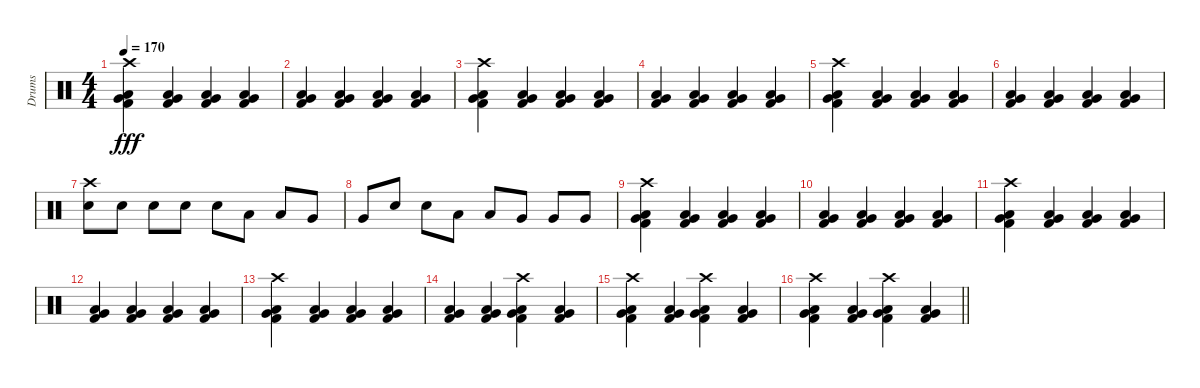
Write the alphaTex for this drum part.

\track ("Drums" "Drums") {instrument percussion}
\staff {score}
\articulation defaults
\ts (4 4)
\tempo 170
\clef neutral
\ks c
("Crash high (hit)" "Low Tom (hit)" "Very Low Tom (hit)" "Kick (hit) 2").4{dy fff} ("Low Tom (hit)" "Very Low Tom (hit)" "Kick (hit) 2").4 ("Low Tom (hit)" "Very Low Tom (hit)" "Kick (hit) 2").4 ("Low Tom (hit)" "Very Low Tom (hit)" "Kick (hit) 2").4 |
("Low Tom (hit)" "Very Low Tom (hit)" "Kick (hit) 2").4 ("Low Tom (hit)" "Very Low Tom (hit)" "Kick (hit) 2").4 ("Low Tom (hit)" "Very Low Tom (hit)" "Kick (hit) 2").4 ("Low Tom (hit)" "Very Low Tom (hit)" "Kick (hit) 2").4 |
("Crash high (hit)" "Low Tom (hit)" "Very Low Tom (hit)" "Kick (hit) 2").4 ("Low Tom (hit)" "Very Low Tom (hit)" "Kick (hit) 2").4 ("Low Tom (hit)" "Very Low Tom (hit)" "Kick (hit) 2").4 ("Low Tom (hit)" "Very Low Tom (hit)" "Kick (hit) 2").4 |
("Low Tom (hit)" "Very Low Tom (hit)" "Kick (hit) 2").4 ("Low Tom (hit)" "Very Low Tom (hit)" "Kick (hit) 2").4 ("Low Tom (hit)" "Very Low Tom (hit)" "Kick (hit) 2").4 ("Low Tom (hit)" "Very Low Tom (hit)" "Kick (hit) 2").4 |
("Crash high (hit)" "Low Tom (hit)" "Very Low Tom (hit)" "Kick (hit) 2").4 ("Low Tom (hit)" "Very Low Tom (hit)" "Kick (hit) 2").4 ("Low Tom (hit)" "Very Low Tom (hit)" "Kick (hit) 2").4 ("Low Tom (hit)" "Very Low Tom (hit)" "Kick (hit) 2").4 |
("Low Tom (hit)" "Very Low Tom (hit)" "Kick (hit) 2").4 ("Low Tom (hit)" "Very Low Tom (hit)" "Kick (hit) 2").4 ("Low Tom (hit)" "Very Low Tom (hit)" "Kick (hit) 2").4 ("Low Tom (hit)" "Very Low Tom (hit)" "Kick (hit) 2").4 |
("Crash high (hit)" "Electric Snare (hit)").8 "Electric Snare (hit)".8 "Electric Snare (hit)".8 "Electric Snare (hit)".8 "Electric Snare (hit)".8 "Low Tom (hit)".8 "Low Tom (hit)".8 "Very Low Tom (hit)".8 |
"Very Low Tom (hit)".8 "Electric Snare (hit)".8 "Electric Snare (hit)".8 "Low Tom (hit)".8 "Low Tom (hit)".8 "Very Low Tom (hit)".8 "Very Low Tom (hit)".8 "Very Low Tom (hit)".8 |
("Crash high (hit)" "Low Tom (hit)" "Very Low Tom (hit)" "Kick (hit) 2").4 ("Low Tom (hit)" "Very Low Tom (hit)" "Kick (hit) 2").4 ("Low Tom (hit)" "Very Low Tom (hit)" "Kick (hit) 2").4 ("Low Tom (hit)" "Very Low Tom (hit)" "Kick (hit) 2").4 |
("Low Tom (hit)" "Very Low Tom (hit)" "Kick (hit) 2").4 ("Low Tom (hit)" "Very Low Tom (hit)" "Kick (hit) 2").4 ("Low Tom (hit)" "Very Low Tom (hit)" "Kick (hit) 2").4 ("Low Tom (hit)" "Very Low Tom (hit)" "Kick (hit) 2").4 |
("Crash high (hit)" "Low Tom (hit)" "Very Low Tom (hit)" "Kick (hit) 2").4 ("Low Tom (hit)" "Very Low Tom (hit)" "Kick (hit) 2").4 ("Low Tom (hit)" "Very Low Tom (hit)" "Kick (hit) 2").4 ("Low Tom (hit)" "Very Low Tom (hit)" "Kick (hit) 2").4 |
("Low Tom (hit)" "Very Low Tom (hit)" "Kick (hit) 2").4 ("Low Tom (hit)" "Very Low Tom (hit)" "Kick (hit) 2").4 ("Low Tom (hit)" "Very Low Tom (hit)" "Kick (hit) 2").4 ("Low Tom (hit)" "Very Low Tom (hit)" "Kick (hit) 2").4 |
("Crash high (hit)" "Low Tom (hit)" "Very Low Tom (hit)" "Kick (hit) 2").4 ("Low Tom (hit)" "Very Low Tom (hit)" "Kick (hit) 2").4 ("Low Tom (hit)" "Very Low Tom (hit)" "Kick (hit) 2").4 ("Low Tom (hit)" "Very Low Tom (hit)" "Kick (hit) 2").4 |
("Low Tom (hit)" "Very Low Tom (hit)" "Kick (hit) 2").4 ("Low Tom (hit)" "Very Low Tom (hit)" "Kick (hit) 2").4 ("Crash high (hit)" "Low Tom (hit)" "Very Low Tom (hit)" "Kick (hit) 2").4 ("Low Tom (hit)" "Very Low Tom (hit)" "Kick (hit) 2").4 |
("Crash high (hit)" "Low Tom (hit)" "Very Low Tom (hit)" "Kick (hit) 2").4 ("Low Tom (hit)" "Very Low Tom (hit)" "Kick (hit) 2").4 ("Crash high (hit)" "Low Tom (hit)" "Very Low Tom (hit)" "Kick (hit) 2").4 ("Low Tom (hit)" "Very Low Tom (hit)" "Kick (hit) 2").4 |
\barLineRight lightlight
("Crash high (hit)" "Low Tom (hit)" "Very Low Tom (hit)" "Kick (hit) 2").4 ("Low Tom (hit)" "Very Low Tom (hit)" "Kick (hit) 2").4 ("Crash high (hit)" "Low Tom (hit)" "Very Low Tom (hit)" "Kick (hit) 2").4 ("Low Tom (hit)" "Very Low Tom (hit)" "Kick (hit) 2").4
